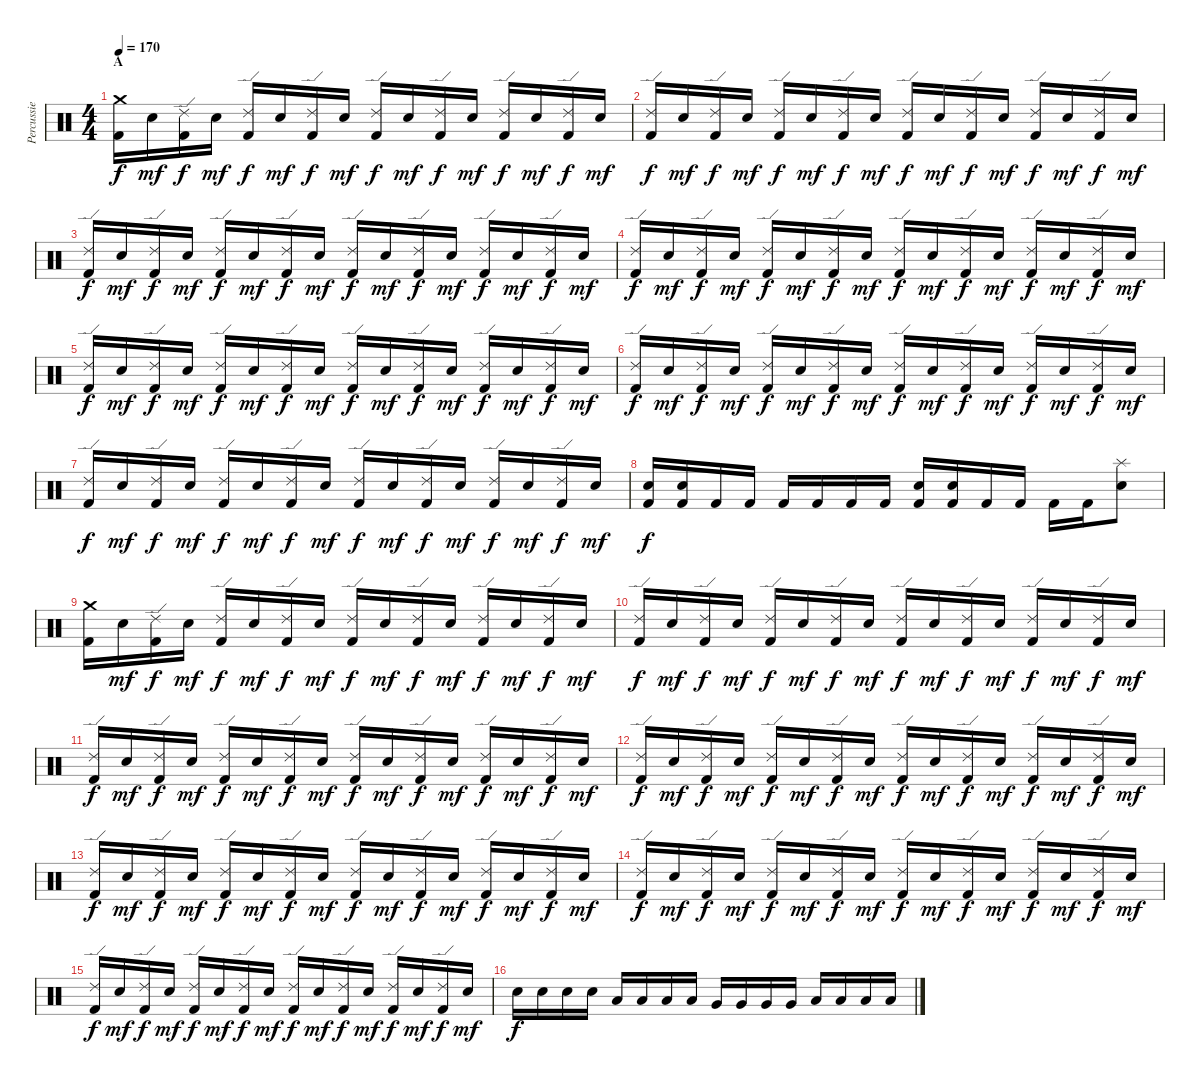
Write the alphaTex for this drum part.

\track ("Percussie" "Percussie") {instrument percussion}
\staff {score}
\articulation defaults
\ts (4 4)
\section ("" "A")
\tempo 170
\clef neutral
\ks c
("Crash medium (hit)" "Kick (hit) 2").16{dy f} "Electric Snare (hit)".16{dy mf} ("Ride (edge) 2" "Kick (hit) 2").16{dy f} "Electric Snare (hit)".16{dy mf} ("Ride (edge) 2" "Kick (hit) 2").16{dy f} "Electric Snare (hit)".16{dy mf} ("Ride (edge) 2" "Kick (hit) 2").16{dy f} "Electric Snare (hit)".16{dy mf} ("Ride (edge) 2" "Kick (hit) 2").16{dy f} "Electric Snare (hit)".16{dy mf} ("Ride (edge) 2" "Kick (hit) 2").16{dy f} "Electric Snare (hit)".16{dy mf} ("Ride (edge) 2" "Kick (hit) 2").16{dy f} "Electric Snare (hit)".16{dy mf} ("Ride (edge) 2" "Kick (hit) 2").16{dy f} "Electric Snare (hit)".16{dy mf} |
("Ride (edge) 2" "Kick (hit) 2").16{dy f} "Electric Snare (hit)".16{dy mf} ("Ride (edge) 2" "Kick (hit) 2").16{dy f} "Electric Snare (hit)".16{dy mf} ("Ride (edge) 2" "Kick (hit) 2").16{dy f} "Electric Snare (hit)".16{dy mf} ("Ride (edge) 2" "Kick (hit) 2").16{dy f} "Electric Snare (hit)".16{dy mf} ("Ride (edge) 2" "Kick (hit) 2").16{dy f} "Electric Snare (hit)".16{dy mf} ("Ride (edge) 2" "Kick (hit) 2").16{dy f} "Electric Snare (hit)".16{dy mf} ("Ride (edge) 2" "Kick (hit) 2").16{dy f} "Electric Snare (hit)".16{dy mf} ("Ride (edge) 2" "Kick (hit) 2").16{dy f} "Electric Snare (hit)".16{dy mf} |
("Ride (edge) 2" "Kick (hit) 2").16{dy f} "Electric Snare (hit)".16{dy mf} ("Ride (edge) 2" "Kick (hit) 2").16{dy f} "Electric Snare (hit)".16{dy mf} ("Ride (edge) 2" "Kick (hit) 2").16{dy f} "Electric Snare (hit)".16{dy mf} ("Ride (edge) 2" "Kick (hit) 2").16{dy f} "Electric Snare (hit)".16{dy mf} ("Ride (edge) 2" "Kick (hit) 2").16{dy f} "Electric Snare (hit)".16{dy mf} ("Ride (edge) 2" "Kick (hit) 2").16{dy f} "Electric Snare (hit)".16{dy mf} ("Ride (edge) 2" "Kick (hit) 2").16{dy f} "Electric Snare (hit)".16{dy mf} ("Ride (edge) 2" "Kick (hit) 2").16{dy f} "Electric Snare (hit)".16{dy mf} |
("Ride (edge) 2" "Kick (hit) 2").16{dy f} "Electric Snare (hit)".16{dy mf} ("Ride (edge) 2" "Kick (hit) 2").16{dy f} "Electric Snare (hit)".16{dy mf} ("Ride (edge) 2" "Kick (hit) 2").16{dy f} "Electric Snare (hit)".16{dy mf} ("Ride (edge) 2" "Kick (hit) 2").16{dy f} "Electric Snare (hit)".16{dy mf} ("Ride (edge) 2" "Kick (hit) 2").16{dy f} "Electric Snare (hit)".16{dy mf} ("Ride (edge) 2" "Kick (hit) 2").16{dy f} "Electric Snare (hit)".16{dy mf} ("Ride (edge) 2" "Kick (hit) 2").16{dy f} "Electric Snare (hit)".16{dy mf} ("Ride (edge) 2" "Kick (hit) 2").16{dy f} "Electric Snare (hit)".16{dy mf} |
("Ride (edge) 2" "Kick (hit) 2").16{dy f} "Electric Snare (hit)".16{dy mf} ("Ride (edge) 2" "Kick (hit) 2").16{dy f} "Electric Snare (hit)".16{dy mf} ("Ride (edge) 2" "Kick (hit) 2").16{dy f} "Electric Snare (hit)".16{dy mf} ("Ride (edge) 2" "Kick (hit) 2").16{dy f} "Electric Snare (hit)".16{dy mf} ("Ride (edge) 2" "Kick (hit) 2").16{dy f} "Electric Snare (hit)".16{dy mf} ("Ride (edge) 2" "Kick (hit) 2").16{dy f} "Electric Snare (hit)".16{dy mf} ("Ride (edge) 2" "Kick (hit) 2").16{dy f} "Electric Snare (hit)".16{dy mf} ("Ride (edge) 2" "Kick (hit) 2").16{dy f} "Electric Snare (hit)".16{dy mf} |
("Ride (edge) 2" "Kick (hit) 2").16{dy f} "Electric Snare (hit)".16{dy mf} ("Ride (edge) 2" "Kick (hit) 2").16{dy f} "Electric Snare (hit)".16{dy mf} ("Ride (edge) 2" "Kick (hit) 2").16{dy f} "Electric Snare (hit)".16{dy mf} ("Ride (edge) 2" "Kick (hit) 2").16{dy f} "Electric Snare (hit)".16{dy mf} ("Ride (edge) 2" "Kick (hit) 2").16{dy f} "Electric Snare (hit)".16{dy mf} ("Ride (edge) 2" "Kick (hit) 2").16{dy f} "Electric Snare (hit)".16{dy mf} ("Ride (edge) 2" "Kick (hit) 2").16{dy f} "Electric Snare (hit)".16{dy mf} ("Ride (edge) 2" "Kick (hit) 2").16{dy f} "Electric Snare (hit)".16{dy mf} |
("Ride (edge) 2" "Kick (hit) 2").16{dy f} "Electric Snare (hit)".16{dy mf} ("Ride (edge) 2" "Kick (hit) 2").16{dy f} "Electric Snare (hit)".16{dy mf} ("Ride (edge) 2" "Kick (hit) 2").16{dy f} "Electric Snare (hit)".16{dy mf} ("Ride (edge) 2" "Kick (hit) 2").16{dy f} "Electric Snare (hit)".16{dy mf} ("Ride (edge) 2" "Kick (hit) 2").16{dy f} "Electric Snare (hit)".16{dy mf} ("Ride (edge) 2" "Kick (hit) 2").16{dy f} "Electric Snare (hit)".16{dy mf} ("Ride (edge) 2" "Kick (hit) 2").16{dy f} "Electric Snare (hit)".16{dy mf} ("Ride (edge) 2" "Kick (hit) 2").16{dy f} "Electric Snare (hit)".16{dy mf} |
("Electric Snare (hit)" "Kick (hit) 2").16{dy f} ("Electric Snare (hit)" "Kick (hit) 2").16 "Kick (hit) 2".16 "Kick (hit) 2".16 "Kick (hit) 2".16 "Kick (hit) 2".16 "Kick (hit) 2".16 "Kick (hit) 2".16 ("Electric Snare (hit)" "Kick (hit) 2").16 ("Electric Snare (hit)" "Kick (hit) 2").16 "Kick (hit) 2".16 "Kick (hit) 2".16 "Kick (hit) 2".16 "Kick (hit) 2".16 ("Splash (hit)" "Electric Snare (hit)").8 |
("Crash medium (hit)" "Kick (hit) 2").16 "Electric Snare (hit)".16{dy mf} ("Ride (edge) 2" "Kick (hit) 2").16{dy f} "Electric Snare (hit)".16{dy mf} ("Ride (edge) 2" "Kick (hit) 2").16{dy f} "Electric Snare (hit)".16{dy mf} ("Ride (edge) 2" "Kick (hit) 2").16{dy f} "Electric Snare (hit)".16{dy mf} ("Ride (edge) 2" "Kick (hit) 2").16{dy f} "Electric Snare (hit)".16{dy mf} ("Ride (edge) 2" "Kick (hit) 2").16{dy f} "Electric Snare (hit)".16{dy mf} ("Ride (edge) 2" "Kick (hit) 2").16{dy f} "Electric Snare (hit)".16{dy mf} ("Ride (edge) 2" "Kick (hit) 2").16{dy f} "Electric Snare (hit)".16{dy mf} |
("Ride (edge) 2" "Kick (hit) 2").16{dy f} "Electric Snare (hit)".16{dy mf} ("Ride (edge) 2" "Kick (hit) 2").16{dy f} "Electric Snare (hit)".16{dy mf} ("Ride (edge) 2" "Kick (hit) 2").16{dy f} "Electric Snare (hit)".16{dy mf} ("Ride (edge) 2" "Kick (hit) 2").16{dy f} "Electric Snare (hit)".16{dy mf} ("Ride (edge) 2" "Kick (hit) 2").16{dy f} "Electric Snare (hit)".16{dy mf} ("Ride (edge) 2" "Kick (hit) 2").16{dy f} "Electric Snare (hit)".16{dy mf} ("Ride (edge) 2" "Kick (hit) 2").16{dy f} "Electric Snare (hit)".16{dy mf} ("Ride (edge) 2" "Kick (hit) 2").16{dy f} "Electric Snare (hit)".16{dy mf} |
("Ride (edge) 2" "Kick (hit) 2").16{dy f} "Electric Snare (hit)".16{dy mf} ("Ride (edge) 2" "Kick (hit) 2").16{dy f} "Electric Snare (hit)".16{dy mf} ("Ride (edge) 2" "Kick (hit) 2").16{dy f} "Electric Snare (hit)".16{dy mf} ("Ride (edge) 2" "Kick (hit) 2").16{dy f} "Electric Snare (hit)".16{dy mf} ("Ride (edge) 2" "Kick (hit) 2").16{dy f} "Electric Snare (hit)".16{dy mf} ("Ride (edge) 2" "Kick (hit) 2").16{dy f} "Electric Snare (hit)".16{dy mf} ("Ride (edge) 2" "Kick (hit) 2").16{dy f} "Electric Snare (hit)".16{dy mf} ("Ride (edge) 2" "Kick (hit) 2").16{dy f} "Electric Snare (hit)".16{dy mf} |
("Ride (edge) 2" "Kick (hit) 2").16{dy f} "Electric Snare (hit)".16{dy mf} ("Ride (edge) 2" "Kick (hit) 2").16{dy f} "Electric Snare (hit)".16{dy mf} ("Ride (edge) 2" "Kick (hit) 2").16{dy f} "Electric Snare (hit)".16{dy mf} ("Ride (edge) 2" "Kick (hit) 2").16{dy f} "Electric Snare (hit)".16{dy mf} ("Ride (edge) 2" "Kick (hit) 2").16{dy f} "Electric Snare (hit)".16{dy mf} ("Ride (edge) 2" "Kick (hit) 2").16{dy f} "Electric Snare (hit)".16{dy mf} ("Ride (edge) 2" "Kick (hit) 2").16{dy f} "Electric Snare (hit)".16{dy mf} ("Ride (edge) 2" "Kick (hit) 2").16{dy f} "Electric Snare (hit)".16{dy mf} |
("Ride (edge) 2" "Kick (hit) 2").16{dy f} "Electric Snare (hit)".16{dy mf} ("Ride (edge) 2" "Kick (hit) 2").16{dy f} "Electric Snare (hit)".16{dy mf} ("Ride (edge) 2" "Kick (hit) 2").16{dy f} "Electric Snare (hit)".16{dy mf} ("Ride (edge) 2" "Kick (hit) 2").16{dy f} "Electric Snare (hit)".16{dy mf} ("Ride (edge) 2" "Kick (hit) 2").16{dy f} "Electric Snare (hit)".16{dy mf} ("Ride (edge) 2" "Kick (hit) 2").16{dy f} "Electric Snare (hit)".16{dy mf} ("Ride (edge) 2" "Kick (hit) 2").16{dy f} "Electric Snare (hit)".16{dy mf} ("Ride (edge) 2" "Kick (hit) 2").16{dy f} "Electric Snare (hit)".16{dy mf} |
("Ride (edge) 2" "Kick (hit) 2").16{dy f} "Electric Snare (hit)".16{dy mf} ("Ride (edge) 2" "Kick (hit) 2").16{dy f} "Electric Snare (hit)".16{dy mf} ("Ride (edge) 2" "Kick (hit) 2").16{dy f} "Electric Snare (hit)".16{dy mf} ("Ride (edge) 2" "Kick (hit) 2").16{dy f} "Electric Snare (hit)".16{dy mf} ("Ride (edge) 2" "Kick (hit) 2").16{dy f} "Electric Snare (hit)".16{dy mf} ("Ride (edge) 2" "Kick (hit) 2").16{dy f} "Electric Snare (hit)".16{dy mf} ("Ride (edge) 2" "Kick (hit) 2").16{dy f} "Electric Snare (hit)".16{dy mf} ("Ride (edge) 2" "Kick (hit) 2").16{dy f} "Electric Snare (hit)".16{dy mf} |
("Ride (edge) 2" "Kick (hit) 2").16{dy f} "Electric Snare (hit)".16{dy mf} ("Ride (edge) 2" "Kick (hit) 2").16{dy f} "Electric Snare (hit)".16{dy mf} ("Ride (edge) 2" "Kick (hit) 2").16{dy f} "Electric Snare (hit)".16{dy mf} ("Ride (edge) 2" "Kick (hit) 2").16{dy f} "Electric Snare (hit)".16{dy mf} ("Ride (edge) 2" "Kick (hit) 2").16{dy f} "Electric Snare (hit)".16{dy mf} ("Ride (edge) 2" "Kick (hit) 2").16{dy f} "Electric Snare (hit)".16{dy mf} ("Ride (edge) 2" "Kick (hit) 2").16{dy f} "Electric Snare (hit)".16{dy mf} ("Ride (edge) 2" "Kick (hit) 2").16{dy f} "Electric Snare (hit)".16{dy mf} |
"Electric Snare (hit)".16{dy f} "Electric Snare (hit)".16 "Electric Snare (hit)".16 "Electric Snare (hit)".16 "Low Tom (hit)".16 "Low Tom (hit)".16 "Low Tom (hit)".16 "Low Tom (hit)".16 "Very Low Tom (hit)".16 "Very Low Tom (hit)".16 "Very Low Tom (hit)".16 "Very Low Tom (hit)".16 "Low Floor Tom (hit)".16 "Low Floor Tom (hit)".16 "Low Floor Tom (hit)".16 "Low Floor Tom (hit)".16
